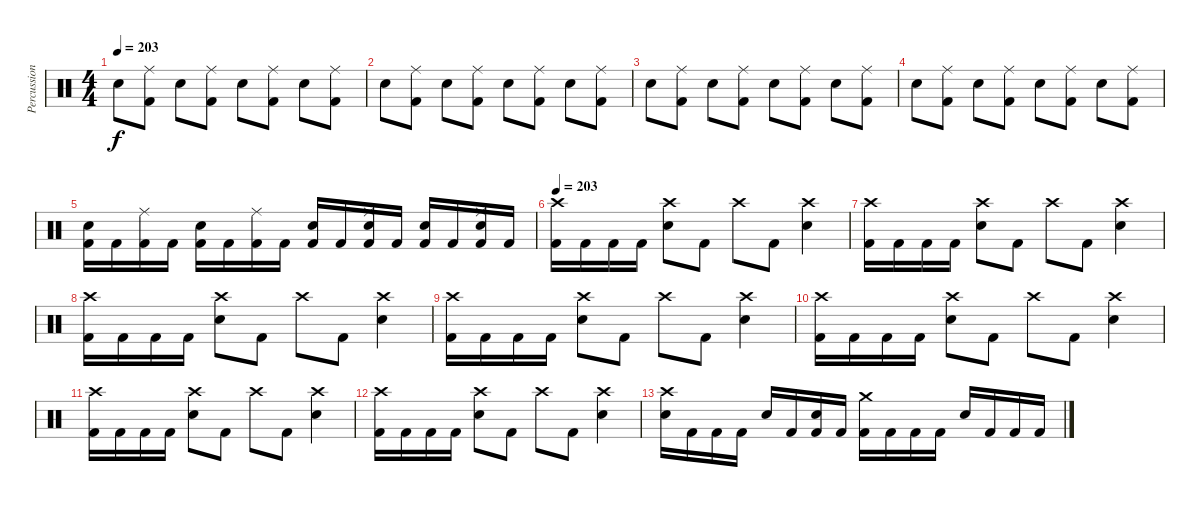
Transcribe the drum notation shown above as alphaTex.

\track ("Percussion" "Percussion") {instrument percussion}
\staff {score}
\articulation defaults
\ts (4 4)
\tempo 203
\clef neutral
\ks c "Electric Snare (hit)".8{dy f}
("Ride (middle)" "Kick (hit) 2").8 "Electric Snare (hit)".8 ("Ride (middle)" "Kick (hit) 2").8 "Electric Snare (hit)".8 ("Ride (middle)" "Kick (hit) 2").8 "Electric Snare (hit)".8 ("Ride (middle)" "Kick (hit) 2").8 |
"Electric Snare (hit)".8 ("Ride (middle)" "Kick (hit) 2").8 "Electric Snare (hit)".8 ("Ride (middle)" "Kick (hit) 2").8 "Electric Snare (hit)".8 ("Ride (middle)" "Kick (hit) 2").8 "Electric Snare (hit)".8 ("Ride (middle)" "Kick (hit) 2").8 |
"Electric Snare (hit)".8 ("Ride (middle)" "Kick (hit) 2").8 "Electric Snare (hit)".8 ("Ride (middle)" "Kick (hit) 2").8 "Electric Snare (hit)".8 ("Ride (middle)" "Kick (hit) 2").8 "Electric Snare (hit)".8 ("Ride (middle)" "Kick (hit) 2").8 |
"Electric Snare (hit)".8 ("Ride (middle)" "Kick (hit) 2").8 "Electric Snare (hit)".8 ("Ride (middle)" "Kick (hit) 2").8 "Electric Snare (hit)".8 ("Ride (middle)" "Kick (hit) 2").8 "Electric Snare (hit)".8 ("Ride (middle)" "Kick (hit) 2").8 |
("Electric Snare (hit)" "Kick (hit) 2").16 "Kick (hit) 2".16 ("Ride (middle)" "Kick (hit) 2").16 "Kick (hit) 2".16 ("Electric Snare (hit)" "Kick (hit) 2").16 "Kick (hit) 2".16 ("Ride (middle)" "Kick (hit) 2").16 "Kick (hit) 2".16 ("Electric Snare (hit)" "Kick (hit) 2").16 "Kick (hit) 2".16 ("Electric Snare (hit)" "Ride (middle)" "Kick (hit) 2").16 "Kick (hit) 2".16 ("Electric Snare (hit)" "Kick (hit) 2").16 "Kick (hit) 2".16 ("Electric Snare (hit)" "Ride (middle)" "Kick (hit) 2").16 "Kick (hit) 2".16 |
\tempo 203
("Crash high (hit)" "Kick (hit) 2").16 "Kick (hit) 2".16 "Kick (hit) 2".16 "Kick (hit) 2".16 ("Crash high (hit)" "Electric Snare (hit)").8 "Kick (hit) 2".8 "Crash high (hit)".8 "Kick (hit) 2".8 ("Crash high (hit)" "Electric Snare (hit)").4 |
("Crash high (hit)" "Kick (hit) 2").16 "Kick (hit) 2".16 "Kick (hit) 2".16 "Kick (hit) 2".16 ("Crash high (hit)" "Electric Snare (hit)").8 "Kick (hit) 2".8 "Crash high (hit)".8 "Kick (hit) 2".8 ("Crash high (hit)" "Electric Snare (hit)").4 |
("Crash high (hit)" "Kick (hit) 2").16 "Kick (hit) 2".16 "Kick (hit) 2".16 "Kick (hit) 2".16 ("Crash high (hit)" "Electric Snare (hit)").8 "Kick (hit) 2".8 "Crash high (hit)".8 "Kick (hit) 2".8 ("Crash high (hit)" "Electric Snare (hit)").4 |
("Crash high (hit)" "Kick (hit) 2").16 "Kick (hit) 2".16 "Kick (hit) 2".16 "Kick (hit) 2".16 ("Crash high (hit)" "Electric Snare (hit)").8 "Kick (hit) 2".8 "Crash high (hit)".8 "Kick (hit) 2".8 ("Crash high (hit)" "Electric Snare (hit)").4 |
("Crash high (hit)" "Kick (hit) 2").16 "Kick (hit) 2".16 "Kick (hit) 2".16 "Kick (hit) 2".16 ("Crash high (hit)" "Electric Snare (hit)").8 "Kick (hit) 2".8 "Crash high (hit)".8 "Kick (hit) 2".8 ("Crash high (hit)" "Electric Snare (hit)").4 |
("Crash high (hit)" "Kick (hit) 2").16 "Kick (hit) 2".16 "Kick (hit) 2".16 "Kick (hit) 2".16 ("Crash high (hit)" "Electric Snare (hit)").8 "Kick (hit) 2".8 "Crash high (hit)".8 "Kick (hit) 2".8 ("Crash high (hit)" "Electric Snare (hit)").4 |
("Crash high (hit)" "Kick (hit) 2").16 "Kick (hit) 2".16 "Kick (hit) 2".16 "Kick (hit) 2".16 ("Crash high (hit)" "Electric Snare (hit)").8 "Kick (hit) 2".8 "Crash high (hit)".8 "Kick (hit) 2".8 ("Crash high (hit)" "Electric Snare (hit)").4 |
("Electric Snare (hit)" "Crash high (hit)").16 "Kick (hit) 2".16 "Kick (hit) 2".16 "Kick (hit) 2".16 "Electric Snare (hit)".16 "Kick (hit) 2".16 ("Electric Snare (hit)" "Kick (hit) 2").16 "Kick (hit) 2".16 ("Crash medium (hit)" "Kick (hit) 2").16 "Kick (hit) 2".16 "Kick (hit) 2".16 "Kick (hit) 2".16 "Electric Snare (hit)".16 "Kick (hit) 2".16 "Kick (hit) 2".16 "Kick (hit) 2".16
